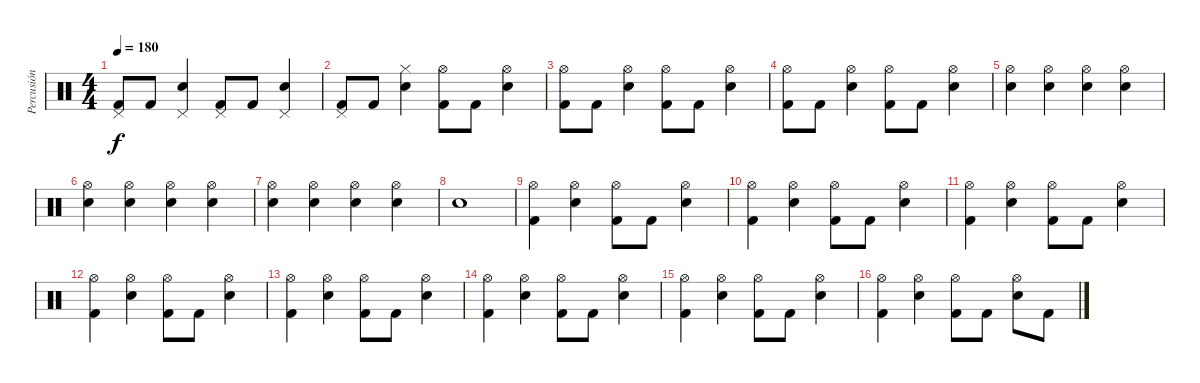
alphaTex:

\track ("Percusión" "Percusión") {instrument percussion}
\staff {score}
\articulation defaults
\ts (4 4)
\tempo 180
\clef neutral
\ks c
("Kick (hit) 2" "Pedal Hi-Hat (hit)").8{dy f} "Kick (hit) 2".8 ("Electric Snare (hit)" "Pedal Hi-Hat (hit)").4 ("Kick (hit) 2" "Pedal Hi-Hat (hit)").8 "Kick (hit) 2".8 ("Electric Snare (hit)" "Pedal Hi-Hat (hit)").4 |
("Kick (hit) 2" "Pedal Hi-Hat (hit)").8 "Kick (hit) 2".8 ("Electric Snare (hit)" "Hi-Hat (closed)").4 ("Kick (hit) 2" "Hi-Hat (open)").8 "Kick (hit) 2".8 ("Electric Snare (hit)" "Hi-Hat (open)").4 |
("Kick (hit) 2" "Hi-Hat (open)").8 "Kick (hit) 2".8 ("Electric Snare (hit)" "Hi-Hat (open)").4 ("Kick (hit) 2" "Hi-Hat (open)").8 "Kick (hit) 2".8 ("Electric Snare (hit)" "Hi-Hat (open)").4 |
("Kick (hit) 2" "Hi-Hat (open)").8 "Kick (hit) 2".8 ("Electric Snare (hit)" "Hi-Hat (open)").4 ("Kick (hit) 2" "Hi-Hat (open)").8 "Kick (hit) 2".8 ("Electric Snare (hit)" "Hi-Hat (open)").4 |
("Electric Snare (hit)" "Hi-Hat (open)").4 ("Electric Snare (hit)" "Hi-Hat (open)").4 ("Electric Snare (hit)" "Hi-Hat (open)").4 ("Electric Snare (hit)" "Hi-Hat (open)").4 |
("Electric Snare (hit)" "Hi-Hat (open)").4 ("Electric Snare (hit)" "Hi-Hat (open)").4 ("Electric Snare (hit)" "Hi-Hat (open)").4 ("Electric Snare (hit)" "Hi-Hat (open)").4 |
("Electric Snare (hit)" "Hi-Hat (open)").4 ("Electric Snare (hit)" "Hi-Hat (open)").4 ("Electric Snare (hit)" "Hi-Hat (open)").4 ("Electric Snare (hit)" "Hi-Hat (open)").4 |
"Electric Snare (hit)".1 |
("Kick (hit) 2" "Hi-Hat (open)").4 ("Electric Snare (hit)" "Hi-Hat (open)").4 ("Kick (hit) 2" "Hi-Hat (open)").8 "Kick (hit) 2".8 ("Electric Snare (hit)" "Hi-Hat (open)").4 |
("Kick (hit) 2" "Hi-Hat (open)").4 ("Electric Snare (hit)" "Hi-Hat (open)").4 ("Kick (hit) 2" "Hi-Hat (open)").8 "Kick (hit) 2".8 ("Electric Snare (hit)" "Hi-Hat (open)").4 |
("Kick (hit) 2" "Hi-Hat (open)").4 ("Electric Snare (hit)" "Hi-Hat (open)").4 ("Kick (hit) 2" "Hi-Hat (open)").8 "Kick (hit) 2".8 ("Electric Snare (hit)" "Hi-Hat (open)").4 |
("Kick (hit) 2" "Hi-Hat (open)").4 ("Electric Snare (hit)" "Hi-Hat (open)").4 ("Kick (hit) 2" "Hi-Hat (open)").8 "Kick (hit) 2".8 ("Electric Snare (hit)" "Hi-Hat (open)").4 |
("Kick (hit) 2" "Hi-Hat (open)").4 ("Electric Snare (hit)" "Hi-Hat (open)").4 ("Kick (hit) 2" "Hi-Hat (open)").8 "Kick (hit) 2".8 ("Electric Snare (hit)" "Hi-Hat (open)").4 |
("Kick (hit) 2" "Hi-Hat (open)").4 ("Electric Snare (hit)" "Hi-Hat (open)").4 ("Kick (hit) 2" "Hi-Hat (open)").8 "Kick (hit) 2".8 ("Electric Snare (hit)" "Hi-Hat (open)").4 |
("Kick (hit) 2" "Hi-Hat (open)").4 ("Electric Snare (hit)" "Hi-Hat (open)").4 ("Kick (hit) 2" "Hi-Hat (open)").8 "Kick (hit) 2".8 ("Electric Snare (hit)" "Hi-Hat (open)").4 |
("Kick (hit) 2" "Hi-Hat (open)").4 ("Electric Snare (hit)" "Hi-Hat (open)").4 ("Kick (hit) 2" "Hi-Hat (open)").8 "Kick (hit) 2".8 ("Electric Snare (hit)" "Hi-Hat (open)").8 "Kick (hit) 2".8
